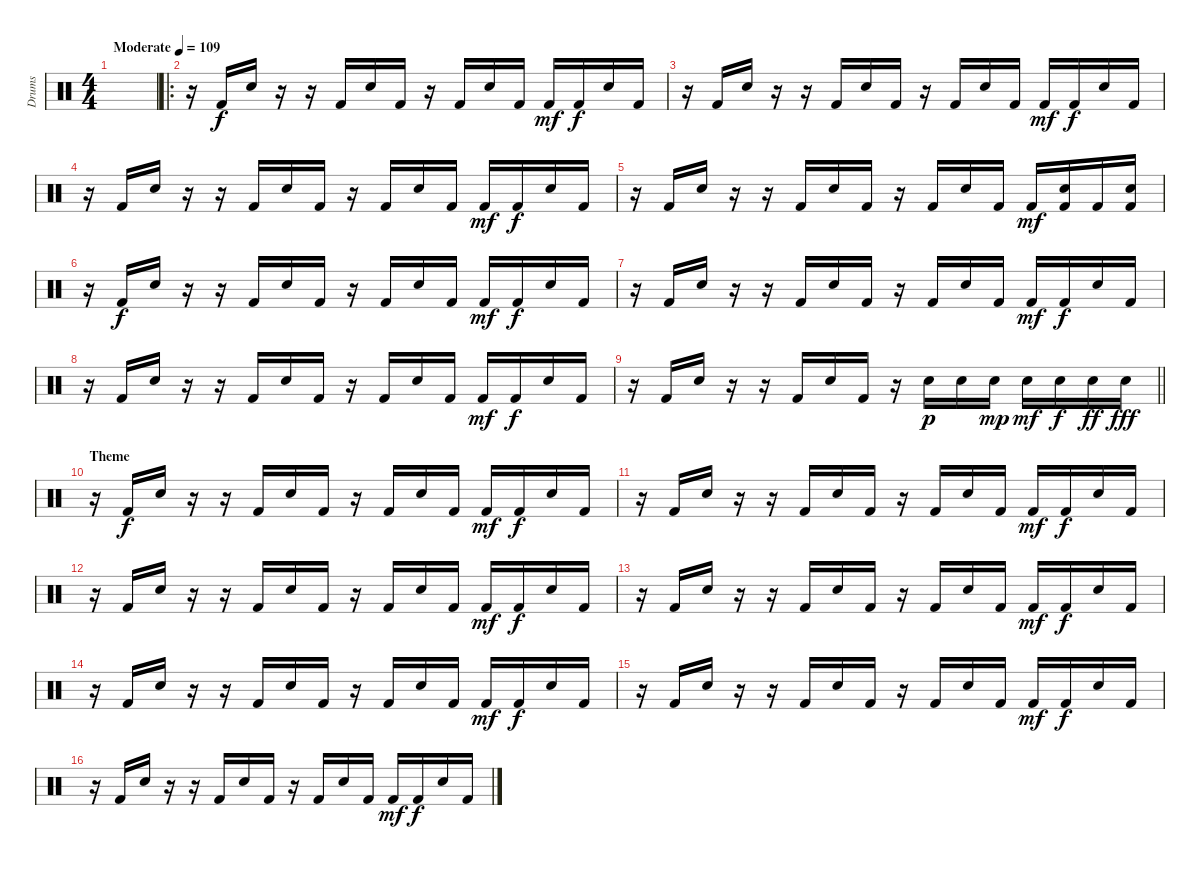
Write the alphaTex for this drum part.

\track ("Drums" "Drums") {instrument percussion}
\staff {score}
\articulation defaults
\ts (4 4)
\tempo (109 "Moderate")
\clef neutral
\ks c
|
\ro
r.16 "Kick (hit) 2".16 "Snare (hit) 2".16 r.16 r.16 "Kick (hit) 2".16 "Snare (hit) 2".16 "Kick (hit) 2".16 r.16 "Kick (hit) 2".16 "Snare (hit) 2".16 "Kick (hit) 2".16 "Kick (hit) 2".16{dy mf} "Kick (hit) 2".16{dy f} "Snare (hit) 2".16 "Kick (hit) 2".16 |
r.16 "Kick (hit) 2".16 "Snare (hit) 2".16 r.16 r.16 "Kick (hit) 2".16 "Snare (hit) 2".16 "Kick (hit) 2".16 r.16 "Kick (hit) 2".16 "Snare (hit) 2".16 "Kick (hit) 2".16 "Kick (hit) 2".16{dy mf} "Kick (hit) 2".16{dy f} "Snare (hit) 2".16 "Kick (hit) 2".16 |
r.16 "Kick (hit) 2".16 "Snare (hit) 2".16 r.16 r.16 "Kick (hit) 2".16 "Snare (hit) 2".16 "Kick (hit) 2".16 r.16 "Kick (hit) 2".16 "Snare (hit) 2".16 "Kick (hit) 2".16 "Kick (hit) 2".16{dy mf} "Kick (hit) 2".16{dy f} "Snare (hit) 2".16 "Kick (hit) 2".16 |
r.16 "Kick (hit) 2".16 "Snare (hit) 2".16 r.16 r.16 "Kick (hit) 2".16 "Snare (hit) 2".16 "Kick (hit) 2".16 r.16 "Kick (hit) 2".16 "Snare (hit) 2".16 "Kick (hit) 2".16 "Kick (hit) 2".16{dy mf} ("Snare (hit) 2" "Kick (hit) 2").16 "Kick (hit) 2".16 ("Snare (hit) 2" "Kick (hit) 2").16 |
r.16 "Kick (hit) 2".16{dy f} "Snare (hit) 2".16 r.16 r.16 "Kick (hit) 2".16 "Snare (hit) 2".16 "Kick (hit) 2".16 r.16 "Kick (hit) 2".16 "Snare (hit) 2".16 "Kick (hit) 2".16 "Kick (hit) 2".16{dy mf} "Kick (hit) 2".16{dy f} "Snare (hit) 2".16 "Kick (hit) 2".16 |
r.16 "Kick (hit) 2".16 "Snare (hit) 2".16 r.16 r.16 "Kick (hit) 2".16 "Snare (hit) 2".16 "Kick (hit) 2".16 r.16 "Kick (hit) 2".16 "Snare (hit) 2".16 "Kick (hit) 2".16 "Kick (hit) 2".16{dy mf} "Kick (hit) 2".16{dy f} "Snare (hit) 2".16 "Kick (hit) 2".16 |
r.16 "Kick (hit) 2".16 "Snare (hit) 2".16 r.16 r.16 "Kick (hit) 2".16 "Snare (hit) 2".16 "Kick (hit) 2".16 r.16 "Kick (hit) 2".16 "Snare (hit) 2".16 "Kick (hit) 2".16 "Kick (hit) 2".16{dy mf} "Kick (hit) 2".16{dy f} "Snare (hit) 2".16 "Kick (hit) 2".16 |
\barLineRight lightlight
r.16 "Kick (hit) 2".16 "Snare (hit) 2".16 r.16 r.16 "Kick (hit) 2".16 "Snare (hit) 2".16 "Kick (hit) 2".16 r.16 "Snare (hit) 2".16{dy p} "Snare (hit) 2".16 "Snare (hit) 2".16{dy mp} "Snare (hit) 2".16{dy mf} "Snare (hit) 2".16{dy f} "Snare (hit) 2".16{dy ff} "Snare (hit) 2".16{dy fff} |
\section ("" "Theme")
r.16 "Kick (hit) 2".16{dy f} "Snare (hit) 2".16 r.16 r.16 "Kick (hit) 2".16 "Snare (hit) 2".16 "Kick (hit) 2".16 r.16 "Kick (hit) 2".16 "Snare (hit) 2".16 "Kick (hit) 2".16 "Kick (hit) 2".16{dy mf} "Kick (hit) 2".16{dy f} "Snare (hit) 2".16 "Kick (hit) 2".16 |
r.16 "Kick (hit) 2".16 "Snare (hit) 2".16 r.16 r.16 "Kick (hit) 2".16 "Snare (hit) 2".16 "Kick (hit) 2".16 r.16 "Kick (hit) 2".16 "Snare (hit) 2".16 "Kick (hit) 2".16 "Kick (hit) 2".16{dy mf} "Kick (hit) 2".16{dy f} "Snare (hit) 2".16 "Kick (hit) 2".16 |
r.16 "Kick (hit) 2".16 "Snare (hit) 2".16 r.16 r.16 "Kick (hit) 2".16 "Snare (hit) 2".16 "Kick (hit) 2".16 r.16 "Kick (hit) 2".16 "Snare (hit) 2".16 "Kick (hit) 2".16 "Kick (hit) 2".16{dy mf} "Kick (hit) 2".16{dy f} "Snare (hit) 2".16 "Kick (hit) 2".16 |
r.16 "Kick (hit) 2".16 "Snare (hit) 2".16 r.16 r.16 "Kick (hit) 2".16 "Snare (hit) 2".16 "Kick (hit) 2".16 r.16 "Kick (hit) 2".16 "Snare (hit) 2".16 "Kick (hit) 2".16 "Kick (hit) 2".16{dy mf} "Kick (hit) 2".16{dy f} "Snare (hit) 2".16 "Kick (hit) 2".16 |
r.16 "Kick (hit) 2".16 "Snare (hit) 2".16 r.16 r.16 "Kick (hit) 2".16 "Snare (hit) 2".16 "Kick (hit) 2".16 r.16 "Kick (hit) 2".16 "Snare (hit) 2".16 "Kick (hit) 2".16 "Kick (hit) 2".16{dy mf} "Kick (hit) 2".16{dy f} "Snare (hit) 2".16 "Kick (hit) 2".16 |
r.16 "Kick (hit) 2".16 "Snare (hit) 2".16 r.16 r.16 "Kick (hit) 2".16 "Snare (hit) 2".16 "Kick (hit) 2".16 r.16 "Kick (hit) 2".16 "Snare (hit) 2".16 "Kick (hit) 2".16 "Kick (hit) 2".16{dy mf} "Kick (hit) 2".16{dy f} "Snare (hit) 2".16 "Kick (hit) 2".16 |
r.16 "Kick (hit) 2".16 "Snare (hit) 2".16 r.16 r.16 "Kick (hit) 2".16 "Snare (hit) 2".16 "Kick (hit) 2".16 r.16 "Kick (hit) 2".16 "Snare (hit) 2".16 "Kick (hit) 2".16 "Kick (hit) 2".16{dy mf} "Kick (hit) 2".16{dy f} "Snare (hit) 2".16 "Kick (hit) 2".16
